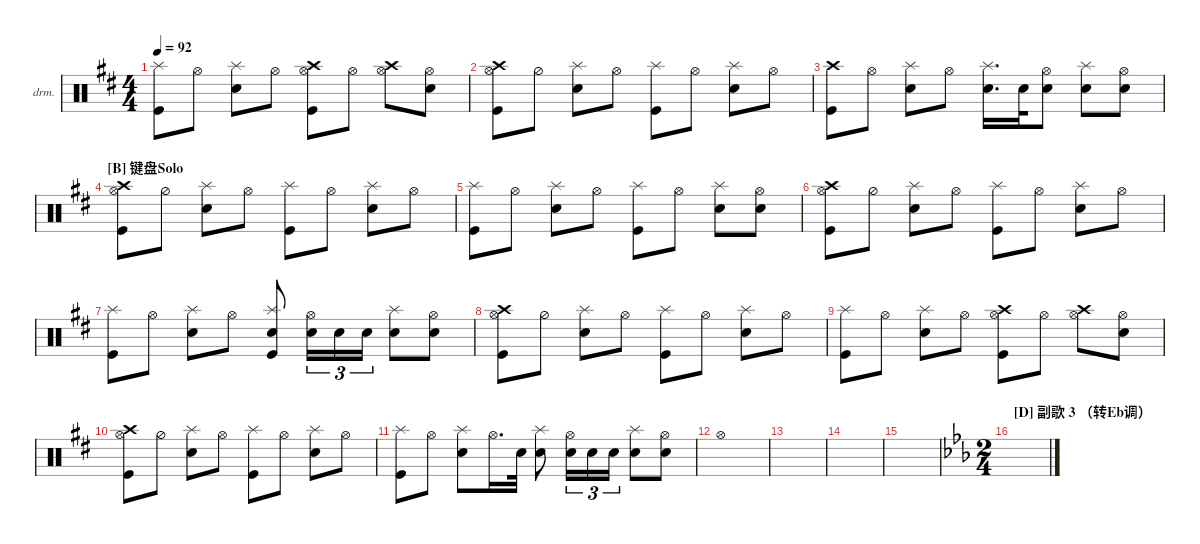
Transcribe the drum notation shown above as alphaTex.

\defaultSystemsLayout 4
\hideDynamics
\bracketExtendMode nobrackets
\firstSystemTrackNameOrientation horizontal
\otherSystemsTrackNameOrientation horizontal
\track ("Drumkit" "drm.") {instrument percussion}
\staff {score}
\articulation defaults
\ts (4 4)
\tempo 92
\clef neutral
\ks d
("Kick (hit)" "Splash (hit)").8{dy mf} "Hi-Hat (open)".8 ("Snare (hit) 2" "Splash (hit)").8 "Hi-Hat (open)".8 ("Kick (hit)" "Hi-Hat (open)" "Crash high (hit)").8 "Hi-Hat (open)".8 ("Hi-Hat (open)" "Crash high (hit)").8 ("Snare (hit) 2" "Hi-Hat (open)").8 |
("Crash high (hit)" "Kick (hit)" "Hi-Hat (open)").8 "Hi-Hat (half)".8 ("Snare (hit) 2" "Splash (hit)").8 "Hi-Hat (open)".8 ("Kick (hit)" "Splash (hit)").8 "Hi-Hat (open)".8 ("Snare (hit) 2" "Splash (hit)").8 "Hi-Hat (open)".8 |
("Kick (hit)" "Crash high (hit)").8 "Hi-Hat (open)".8 ("Snare (hit) 2" "Splash (hit)").8 "Hi-Hat (open)".8 ("Snare (hit) 2" "Splash (hit)").16{d} "Snare (hit) 2".32 ("Snare (hit) 2" "Hi-Hat (open)").8 ("Snare (hit) 2" "Splash (hit)").8 ("Snare (hit) 2" "Hi-Hat (open)").8 |
\section ("B" "键盘Solo")
("Crash high (hit)" "Kick (hit)" "Hi-Hat (open)").8 "Hi-Hat (half)".8 ("Snare (hit) 2" "Splash (hit)").8 "Hi-Hat (open)".8 ("Kick (hit)" "Splash (hit)").8 "Hi-Hat (open)".8 ("Snare (hit) 2" "Splash (hit)").8 "Hi-Hat (open)".8 |
("Kick (hit)" "Splash (hit)").8 "Hi-Hat (open)".8 ("Snare (hit) 2" "Splash (hit)").8 "Hi-Hat (open)".8 ("Kick (hit)" "Splash (hit)").8 "Hi-Hat (open)".8 ("Snare (hit) 2" "Splash (hit)").8 ("Snare (hit) 2" "Hi-Hat (open)").8 |
("Crash high (hit)" "Kick (hit)" "Hi-Hat (open)").8 "Hi-Hat (half)".8 ("Snare (hit) 2" "Splash (hit)").8 "Hi-Hat (open)".8 ("Kick (hit)" "Splash (hit)").8 "Hi-Hat (open)".8 ("Snare (hit) 2" "Splash (hit)").8 "Hi-Hat (open)".8 |
("Kick (hit)" "Splash (hit)").8 "Hi-Hat (open)".8 ("Snare (hit) 2" "Splash (hit)").8 "Hi-Hat (open)".8 ("Snare (hit) 2" "Kick (hit)" "Splash (hit)").8 ("Snare (hit) 2" "Hi-Hat (open)").16{tu (3 2)} "Snare (hit) 2".16{tu (3 2)} "Snare (hit) 2".16{tu (3 2)} ("Snare (hit) 2" "Splash (hit)").8 ("Snare (hit) 2" "Hi-Hat (open)").8 |
("Crash high (hit)" "Kick (hit)" "Hi-Hat (open)").8 "Hi-Hat (half)".8 ("Snare (hit) 2" "Splash (hit)").8 "Hi-Hat (open)".8 ("Kick (hit)" "Splash (hit)").8 "Hi-Hat (open)".8 ("Snare (hit) 2" "Splash (hit)").8 "Hi-Hat (open)".8 |
("Kick (hit)" "Splash (hit)").8 "Hi-Hat (open)".8 ("Snare (hit) 2" "Splash (hit)").8 "Hi-Hat (open)".8 ("Kick (hit)" "Hi-Hat (open)" "Crash high (hit)").8 "Hi-Hat (open)".8 ("Hi-Hat (open)" "Crash high (hit)").8 ("Snare (hit) 2" "Hi-Hat (open)").8 |
("Crash high (hit)" "Kick (hit)" "Hi-Hat (open)").8 "Hi-Hat (half)".8 ("Snare (hit) 2" "Splash (hit)").8 "Hi-Hat (open)".8 ("Kick (hit)" "Splash (hit)").8 "Hi-Hat (open)".8 ("Snare (hit) 2" "Splash (hit)").8 "Hi-Hat (open)".8 |
("Kick (hit)" "Splash (hit)").8 "Hi-Hat (open)".8 ("Snare (hit) 2" "Splash (hit)").8 "Hi-Hat (open)".16{d} "Snare (hit) 2".32 ("Snare (hit) 2" "Splash (hit)").8 ("Snare (hit) 2" "Hi-Hat (open)").16{tu (3 2)} "Snare (hit) 2".16{tu (3 2)} "Snare (hit) 2".16{tu (3 2)} ("Snare (hit) 2" "Splash (hit)").8 ("Snare (hit) 2" "Hi-Hat (open)").8 |
"Hi-Hat (open)".1 |
|
|
|
\ts (2 4)
\beaming (8 2 2)
\section ("D" "副歌 3 （转Eb调）")
\ks eb
